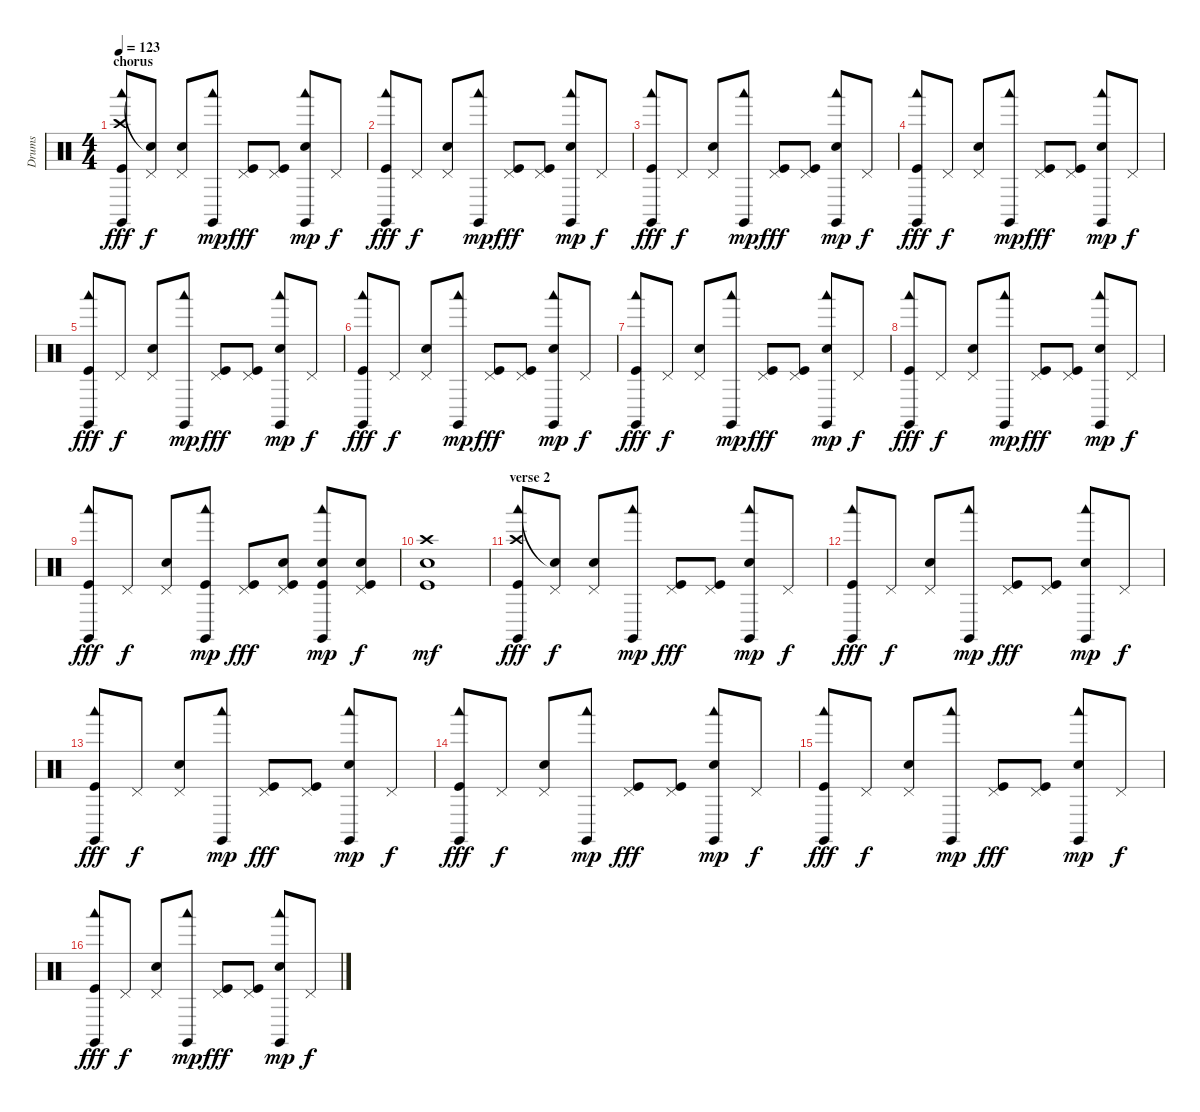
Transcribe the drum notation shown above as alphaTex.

\track ("Drums" "Drums") {instrument percussion}
\staff {score}
\articulation defaults
\ts (4 4)
\section ("" "chorus")
\tempo 123
\clef neutral
\ks c
("Claves (hit)" "Woodblock low (hit)" "Crash high (hit)" "Kick (hit)").8{dy fff} ("Pedal Hi-Hat (hit)" "Snare (hit)"{t}).8{dy f} ("Pedal Hi-Hat (hit)" "Electric Snare (hit)").8 ("Claves (hit)" "Woodblock low (hit)").8{dy mp} ("Pedal Hi-Hat (hit)" "Kick (hit)").8{dy fff} ("Pedal Hi-Hat (hit)" "Kick (hit)").8 ("Claves (hit)" "Woodblock low (hit)" "Electric Snare (hit)").8{dy mp} "Pedal Hi-Hat (hit)".8{dy f} |
("Claves (hit)" "Woodblock low (hit)" "Kick (hit)").8{dy fff} "Pedal Hi-Hat (hit)".8{dy f} ("Pedal Hi-Hat (hit)" "Electric Snare (hit)").8 ("Claves (hit)" "Woodblock low (hit)").8{dy mp} ("Pedal Hi-Hat (hit)" "Kick (hit)").8{dy fff} ("Pedal Hi-Hat (hit)" "Kick (hit)").8 ("Claves (hit)" "Woodblock low (hit)" "Electric Snare (hit)").8{dy mp} "Pedal Hi-Hat (hit)".8{dy f} |
("Claves (hit)" "Woodblock low (hit)" "Kick (hit)").8{dy fff} "Pedal Hi-Hat (hit)".8{dy f} ("Pedal Hi-Hat (hit)" "Electric Snare (hit)").8 ("Claves (hit)" "Woodblock low (hit)").8{dy mp} ("Pedal Hi-Hat (hit)" "Kick (hit)").8{dy fff} ("Pedal Hi-Hat (hit)" "Kick (hit)").8 ("Claves (hit)" "Woodblock low (hit)" "Electric Snare (hit)").8{dy mp} "Pedal Hi-Hat (hit)".8{dy f} |
("Claves (hit)" "Woodblock low (hit)" "Kick (hit)").8{dy fff} "Pedal Hi-Hat (hit)".8{dy f} ("Pedal Hi-Hat (hit)" "Electric Snare (hit)").8 ("Claves (hit)" "Woodblock low (hit)").8{dy mp} ("Pedal Hi-Hat (hit)" "Kick (hit)").8{dy fff} ("Pedal Hi-Hat (hit)" "Kick (hit)").8 ("Claves (hit)" "Woodblock low (hit)" "Electric Snare (hit)").8{dy mp} "Pedal Hi-Hat (hit)".8{dy f} |
("Claves (hit)" "Woodblock low (hit)" "Kick (hit)").8{dy fff} "Pedal Hi-Hat (hit)".8{dy f} ("Pedal Hi-Hat (hit)" "Electric Snare (hit)").8 ("Claves (hit)" "Woodblock low (hit)").8{dy mp} ("Pedal Hi-Hat (hit)" "Kick (hit)").8{dy fff} ("Pedal Hi-Hat (hit)" "Kick (hit)").8 ("Claves (hit)" "Woodblock low (hit)" "Electric Snare (hit)").8{dy mp} "Pedal Hi-Hat (hit)".8{dy f} |
("Claves (hit)" "Woodblock low (hit)" "Kick (hit)").8{dy fff} "Pedal Hi-Hat (hit)".8{dy f} ("Pedal Hi-Hat (hit)" "Electric Snare (hit)").8 ("Claves (hit)" "Woodblock low (hit)").8{dy mp} ("Pedal Hi-Hat (hit)" "Kick (hit)").8{dy fff} ("Pedal Hi-Hat (hit)" "Kick (hit)").8 ("Claves (hit)" "Woodblock low (hit)" "Electric Snare (hit)").8{dy mp} "Pedal Hi-Hat (hit)".8{dy f} |
("Claves (hit)" "Woodblock low (hit)" "Kick (hit)").8{dy fff} "Pedal Hi-Hat (hit)".8{dy f} ("Pedal Hi-Hat (hit)" "Electric Snare (hit)").8 ("Claves (hit)" "Woodblock low (hit)").8{dy mp} ("Pedal Hi-Hat (hit)" "Kick (hit)").8{dy fff} ("Pedal Hi-Hat (hit)" "Kick (hit)").8 ("Claves (hit)" "Woodblock low (hit)" "Electric Snare (hit)").8{dy mp} "Pedal Hi-Hat (hit)".8{dy f} |
("Claves (hit)" "Woodblock low (hit)" "Kick (hit)").8{dy fff} "Pedal Hi-Hat (hit)".8{dy f} ("Pedal Hi-Hat (hit)" "Electric Snare (hit)").8 ("Claves (hit)" "Woodblock low (hit)").8{dy mp} ("Pedal Hi-Hat (hit)" "Kick (hit)").8{dy fff} ("Pedal Hi-Hat (hit)" "Kick (hit)").8 ("Claves (hit)" "Woodblock low (hit)" "Electric Snare (hit)").8{dy mp} "Pedal Hi-Hat (hit)".8{dy f} |
("Claves (hit)" "Woodblock low (hit)" "Kick (hit)").8{dy fff} "Pedal Hi-Hat (hit)".8{dy f} ("Pedal Hi-Hat (hit)" "Electric Snare (hit)").8 ("Claves (hit)" "Woodblock low (hit)" "Kick (hit)").8{dy mp} ("Pedal Hi-Hat (hit)" "Kick (hit)").8{dy fff} ("Pedal Hi-Hat (hit)" "Electric Snare (hit)" "Kick (hit)").8 ("Claves (hit)" "Woodblock low (hit)" "Electric Snare (hit)" "Kick (hit)").8{dy mp} ("Pedal Hi-Hat (hit)" "Electric Snare (hit)" "Kick (hit)").8{dy f} |
("Crash high (hit)" "Electric Snare (hit)" "Kick (hit)").1{dy mf} |
\section ("" "verse 2")
("Claves (hit)" "Woodblock low (hit)" "Crash high (hit)" "Kick (hit)").8{dy fff} ("Pedal Hi-Hat (hit)" "Snare (hit)"{t}).8{dy f} ("Pedal Hi-Hat (hit)" "Electric Snare (hit)").8 ("Claves (hit)" "Woodblock low (hit)").8{dy mp} ("Pedal Hi-Hat (hit)" "Kick (hit)").8{dy fff} ("Pedal Hi-Hat (hit)" "Kick (hit)").8 ("Claves (hit)" "Woodblock low (hit)" "Electric Snare (hit)").8{dy mp} "Pedal Hi-Hat (hit)".8{dy f} |
("Claves (hit)" "Woodblock low (hit)" "Kick (hit)").8{dy fff} "Pedal Hi-Hat (hit)".8{dy f} ("Pedal Hi-Hat (hit)" "Electric Snare (hit)").8 ("Claves (hit)" "Woodblock low (hit)").8{dy mp} ("Pedal Hi-Hat (hit)" "Kick (hit)").8{dy fff} ("Pedal Hi-Hat (hit)" "Kick (hit)").8 ("Claves (hit)" "Woodblock low (hit)" "Electric Snare (hit)").8{dy mp} "Pedal Hi-Hat (hit)".8{dy f} |
("Claves (hit)" "Woodblock low (hit)" "Kick (hit)").8{dy fff} "Pedal Hi-Hat (hit)".8{dy f} ("Pedal Hi-Hat (hit)" "Electric Snare (hit)").8 ("Claves (hit)" "Woodblock low (hit)").8{dy mp} ("Pedal Hi-Hat (hit)" "Kick (hit)").8{dy fff} ("Pedal Hi-Hat (hit)" "Kick (hit)").8 ("Claves (hit)" "Woodblock low (hit)" "Electric Snare (hit)").8{dy mp} "Pedal Hi-Hat (hit)".8{dy f} |
("Claves (hit)" "Woodblock low (hit)" "Kick (hit)").8{dy fff} "Pedal Hi-Hat (hit)".8{dy f} ("Pedal Hi-Hat (hit)" "Electric Snare (hit)").8 ("Claves (hit)" "Woodblock low (hit)").8{dy mp} ("Pedal Hi-Hat (hit)" "Kick (hit)").8{dy fff} ("Pedal Hi-Hat (hit)" "Kick (hit)").8 ("Claves (hit)" "Woodblock low (hit)" "Electric Snare (hit)").8{dy mp} "Pedal Hi-Hat (hit)".8{dy f} |
("Claves (hit)" "Woodblock low (hit)" "Kick (hit)").8{dy fff} "Pedal Hi-Hat (hit)".8{dy f} ("Pedal Hi-Hat (hit)" "Electric Snare (hit)").8 ("Claves (hit)" "Woodblock low (hit)").8{dy mp} ("Pedal Hi-Hat (hit)" "Kick (hit)").8{dy fff} ("Pedal Hi-Hat (hit)" "Kick (hit)").8 ("Claves (hit)" "Woodblock low (hit)" "Electric Snare (hit)").8{dy mp} "Pedal Hi-Hat (hit)".8{dy f} |
("Claves (hit)" "Woodblock low (hit)" "Kick (hit)").8{dy fff} "Pedal Hi-Hat (hit)".8{dy f} ("Pedal Hi-Hat (hit)" "Electric Snare (hit)").8 ("Claves (hit)" "Woodblock low (hit)").8{dy mp} ("Pedal Hi-Hat (hit)" "Kick (hit)").8{dy fff} ("Pedal Hi-Hat (hit)" "Kick (hit)").8 ("Claves (hit)" "Woodblock low (hit)" "Electric Snare (hit)").8{dy mp} "Pedal Hi-Hat (hit)".8{dy f}
